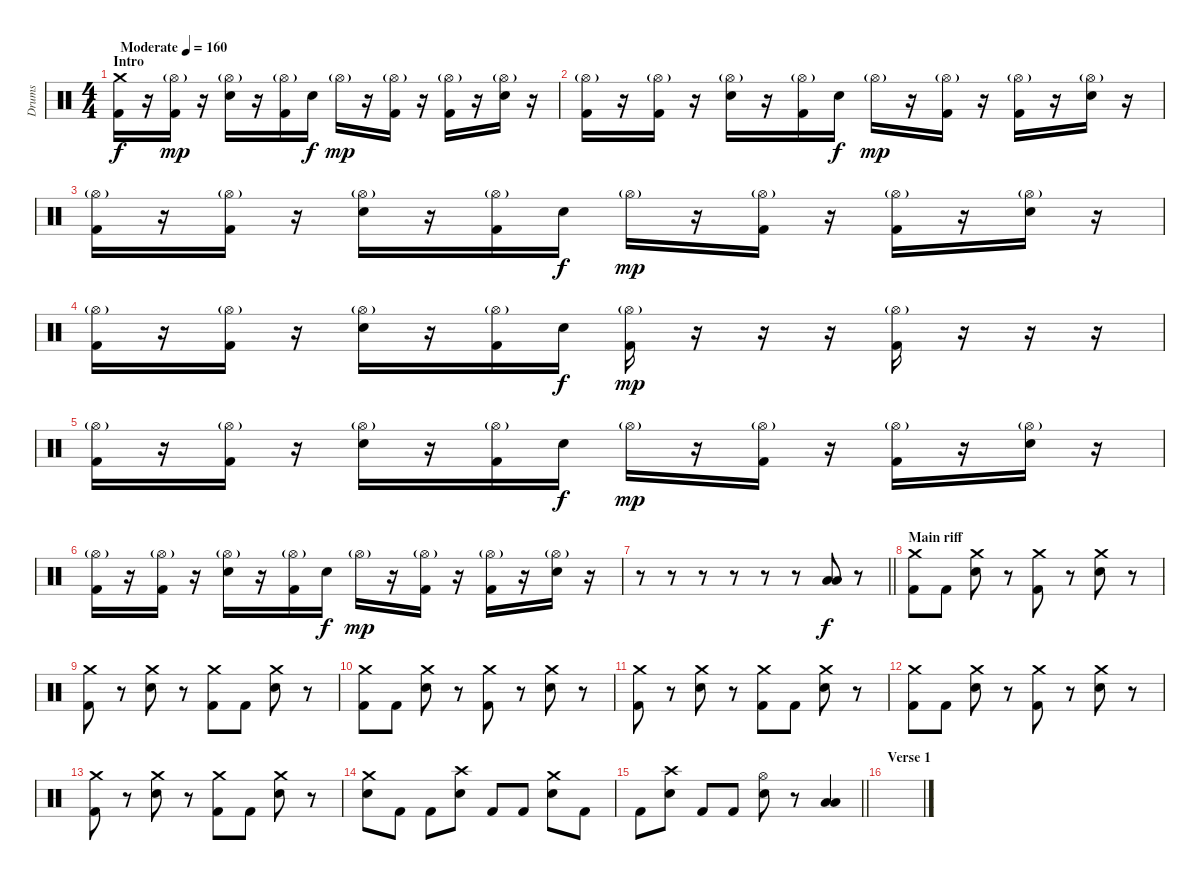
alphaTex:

\track ("Drums" "Drums") {instrument percussion}
\staff {score}
\articulation defaults
\ts (4 4)
\section ("" "Intro")
\tempo (160 "Moderate")
\clef neutral
\ks c
("Crash medium (hit)" "Kick (hit) 2").16{dy f} r.16 ("Hi-Hat (open)"{g} "Kick (hit) 2").16{dy mp} r.16 ("Hi-Hat (open)"{g} "Electric Snare (hit)").16 r.16 ("Hi-Hat (open)"{g} "Kick (hit) 2").16 "Electric Snare (hit)".16{dy f} "Hi-Hat (open)"{g}.16{dy mp} r.16 ("Hi-Hat (open)"{g} "Kick (hit) 2").16 r.16 ("Hi-Hat (open)"{g} "Kick (hit) 2").16 r.16 ("Hi-Hat (open)"{g} "Electric Snare (hit)").16 r.16 |
("Hi-Hat (open)"{g} "Kick (hit) 2").16 r.16 ("Hi-Hat (open)"{g} "Kick (hit) 2").16 r.16 ("Hi-Hat (open)"{g} "Electric Snare (hit)").16 r.16 ("Hi-Hat (open)"{g} "Kick (hit) 2").16 "Electric Snare (hit)".16{dy f} "Hi-Hat (open)"{g}.16{dy mp} r.16 ("Hi-Hat (open)"{g} "Kick (hit) 2").16 r.16 ("Hi-Hat (open)"{g} "Kick (hit) 2").16 r.16 ("Hi-Hat (open)"{g} "Electric Snare (hit)").16 r.16 |
("Hi-Hat (open)"{g} "Kick (hit) 2").16 r.16 ("Hi-Hat (open)"{g} "Kick (hit) 2").16 r.16 ("Hi-Hat (open)"{g} "Electric Snare (hit)").16 r.16 ("Hi-Hat (open)"{g} "Kick (hit) 2").16 "Electric Snare (hit)".16{dy f} "Hi-Hat (open)"{g}.16{dy mp} r.16 ("Hi-Hat (open)"{g} "Kick (hit) 2").16 r.16 ("Hi-Hat (open)"{g} "Kick (hit) 2").16 r.16 ("Hi-Hat (open)"{g} "Electric Snare (hit)").16 r.16 |
("Hi-Hat (open)"{g} "Kick (hit) 2").16 r.16 ("Hi-Hat (open)"{g} "Kick (hit) 2").16 r.16 ("Hi-Hat (open)"{g} "Electric Snare (hit)").16 r.16 ("Hi-Hat (open)"{g} "Kick (hit) 2").16 "Electric Snare (hit)".16{dy f} ("Hi-Hat (open)"{g} "Kick (hit) 2").16{dy mp} r.16 r.16 r.16 ("Hi-Hat (open)"{g} "Kick (hit) 2").16 r.16 r.16 r.16 |
("Hi-Hat (open)"{g} "Kick (hit) 2").16 r.16 ("Hi-Hat (open)"{g} "Kick (hit) 2").16 r.16 ("Hi-Hat (open)"{g} "Electric Snare (hit)").16 r.16 ("Hi-Hat (open)"{g} "Kick (hit) 2").16 "Electric Snare (hit)".16{dy f} "Hi-Hat (open)"{g}.16{dy mp} r.16 ("Hi-Hat (open)"{g} "Kick (hit) 2").16 r.16 ("Hi-Hat (open)"{g} "Kick (hit) 2").16 r.16 ("Hi-Hat (open)"{g} "Electric Snare (hit)").16 r.16 |
("Hi-Hat (open)"{g} "Kick (hit) 2").16 r.16 ("Hi-Hat (open)"{g} "Kick (hit) 2").16 r.16 ("Hi-Hat (open)"{g} "Electric Snare (hit)").16 r.16 ("Hi-Hat (open)"{g} "Kick (hit) 2").16 "Electric Snare (hit)".16{dy f} "Hi-Hat (open)"{g}.16{dy mp} r.16 ("Hi-Hat (open)"{g} "Kick (hit) 2").16 r.16 ("Hi-Hat (open)"{g} "Kick (hit) 2").16 r.16 ("Hi-Hat (open)"{g} "Electric Snare (hit)").16 r.16 |
\barLineRight lightlight
r.8 r.8 r.8 r.8 r.8 r.8 ("Low Tom (hit)" "Low Tom (hit)").8{dy f} r.8 |
\section ("" "Main riff")
("Crash medium (hit)" "Kick (hit) 2").8 "Kick (hit) 2".8 ("Crash medium (hit)" "Electric Snare (hit)").8 r.8 ("Crash medium (hit)" "Kick (hit) 2").8 r.8 ("Crash medium (hit)" "Electric Snare (hit)").8 r.8 |
("Crash medium (hit)" "Kick (hit) 2").8 r.8 ("Crash medium (hit)" "Electric Snare (hit)").8 r.8 ("Crash medium (hit)" "Kick (hit) 2").8 "Kick (hit) 2".8 ("Crash medium (hit)" "Electric Snare (hit)").8 r.8 |
("Crash medium (hit)" "Kick (hit) 2").8 "Kick (hit) 2".8 ("Crash medium (hit)" "Electric Snare (hit)").8 r.8 ("Crash medium (hit)" "Kick (hit) 2").8 r.8 ("Crash medium (hit)" "Electric Snare (hit)").8 r.8 |
("Crash medium (hit)" "Kick (hit) 2").8 r.8 ("Crash medium (hit)" "Electric Snare (hit)").8 r.8 ("Crash medium (hit)" "Kick (hit) 2").8 "Kick (hit) 2".8 ("Crash medium (hit)" "Electric Snare (hit)").8 r.8 |
("Crash medium (hit)" "Kick (hit) 2").8 "Kick (hit) 2".8 ("Crash medium (hit)" "Electric Snare (hit)").8 r.8 ("Crash medium (hit)" "Kick (hit) 2").8 r.8 ("Crash medium (hit)" "Electric Snare (hit)").8 r.8 |
("Crash medium (hit)" "Kick (hit) 2").8 r.8 ("Crash medium (hit)" "Electric Snare (hit)").8 r.8 ("Crash medium (hit)" "Kick (hit) 2").8 "Kick (hit) 2".8 ("Crash medium (hit)" "Electric Snare (hit)").8 r.8 |
("Crash medium (hit)" "Electric Snare (hit)").8 "Kick (hit) 2".8 "Kick (hit) 2".8 ("Crash high (hit)" "Electric Snare (hit)").8 "Kick (hit) 2".8 "Kick (hit) 2".8 ("Crash medium (hit)" "Electric Snare (hit)").8 "Kick (hit) 2".8 |
\barLineRight lightlight "Kick (hit) 2".8
("Crash high (hit)" "Electric Snare (hit)").8 "Kick (hit) 2".8 "Kick (hit) 2".8 ("Hi-Hat (open)" "Electric Snare (hit)").8 r.8 ("Low Tom (hit)" "Low Tom (hit)").4 |
\section ("" "Verse 1")
